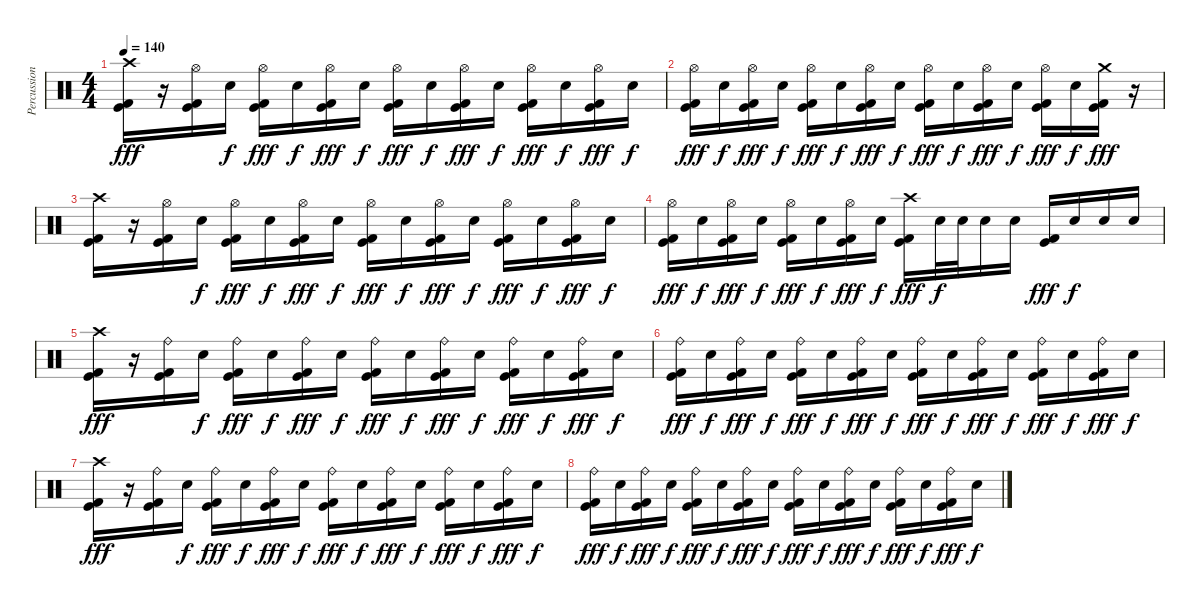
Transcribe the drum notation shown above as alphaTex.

\track ("Percussion" "Percussion") {instrument percussion}
\staff {score}
\articulation defaults
\ts (4 4)
\tempo 140
\clef neutral
\ks c
("Crash high (hit)" "Kick (hit)" "Kick (hit) 2").16{dy fff} r.16 ("Hi-Hat (open)" "Kick (hit)" "Kick (hit) 2").16 "Electric Snare (hit)".16{dy f} ("Hi-Hat (open)" "Kick (hit)" "Kick (hit) 2").16{dy fff} "Electric Snare (hit)".16{dy f} ("Hi-Hat (open)" "Kick (hit)" "Kick (hit) 2").16{dy fff} "Electric Snare (hit)".16{dy f} ("Hi-Hat (open)" "Kick (hit)" "Kick (hit) 2").16{dy fff} "Electric Snare (hit)".16{dy f} ("Hi-Hat (open)" "Kick (hit)" "Kick (hit) 2").16{dy fff} "Electric Snare (hit)".16{dy f} ("Hi-Hat (open)" "Kick (hit)" "Kick (hit) 2").16{dy fff} "Electric Snare (hit)".16{dy f} ("Hi-Hat (open)" "Kick (hit)" "Kick (hit) 2").16{dy fff} "Electric Snare (hit)".16{dy f} |
("Hi-Hat (open)" "Kick (hit)" "Kick (hit) 2").16{dy fff} "Electric Snare (hit)".16{dy f} ("Hi-Hat (open)" "Kick (hit)" "Kick (hit) 2").16{dy fff} "Electric Snare (hit)".16{dy f} ("Hi-Hat (open)" "Kick (hit)" "Kick (hit) 2").16{dy fff} "Electric Snare (hit)".16{dy f} ("Hi-Hat (open)" "Kick (hit)" "Kick (hit) 2").16{dy fff} "Electric Snare (hit)".16{dy f} ("Hi-Hat (open)" "Kick (hit)" "Kick (hit) 2").16{dy fff} "Electric Snare (hit)".16{dy f} ("Hi-Hat (open)" "Kick (hit)" "Kick (hit) 2").16{dy fff} "Electric Snare (hit)".16{dy f} ("Hi-Hat (open)" "Kick (hit)" "Kick (hit) 2").16{dy fff} "Electric Snare (hit)".16{dy f} ("Crash medium (hit)" "Kick (hit)" "Kick (hit) 2").16{dy fff} r.16 |
("Crash high (hit)" "Kick (hit)" "Kick (hit) 2").16 r.16 ("Hi-Hat (open)" "Kick (hit)" "Kick (hit) 2").16 "Electric Snare (hit)".16{dy f} ("Hi-Hat (open)" "Kick (hit)" "Kick (hit) 2").16{dy fff} "Electric Snare (hit)".16{dy f} ("Hi-Hat (open)" "Kick (hit)" "Kick (hit) 2").16{dy fff} "Electric Snare (hit)".16{dy f} ("Hi-Hat (open)" "Kick (hit)" "Kick (hit) 2").16{dy fff} "Electric Snare (hit)".16{dy f} ("Hi-Hat (open)" "Kick (hit)" "Kick (hit) 2").16{dy fff} "Electric Snare (hit)".16{dy f} ("Hi-Hat (open)" "Kick (hit)" "Kick (hit) 2").16{dy fff} "Electric Snare (hit)".16{dy f} ("Hi-Hat (open)" "Kick (hit)" "Kick (hit) 2").16{dy fff} "Electric Snare (hit)".16{dy f} |
("Hi-Hat (open)" "Kick (hit)" "Kick (hit) 2").16{dy fff} "Electric Snare (hit)".16{dy f} ("Hi-Hat (open)" "Kick (hit)" "Kick (hit) 2").16{dy fff} "Electric Snare (hit)".16{dy f} ("Hi-Hat (open)" "Kick (hit)" "Kick (hit) 2").16{dy fff} "Electric Snare (hit)".16{dy f} ("Hi-Hat (open)" "Kick (hit)" "Kick (hit) 2").16{dy fff} "Electric Snare (hit)".16{dy f} ("Crash high (hit)" "Kick (hit)" "Kick (hit) 2").16{dy fff} "Electric Snare (hit)".32{dy f} "Electric Snare (hit)".32 "Electric Snare (hit)".16 "Electric Snare (hit)".16 ("Kick (hit)" "Kick (hit) 2").16{dy fff} "Electric Snare (hit)".16{dy f} "Electric Snare (hit)".16 "Electric Snare (hit)".16 |
("Crash high (hit)" "Kick (hit)" "Kick (hit) 2").16{dy fff} r.16 ("Ride (bell)" "Kick (hit)" "Kick (hit) 2").16 "Electric Snare (hit)".16{dy f} ("Ride (bell)" "Kick (hit)" "Kick (hit) 2").16{dy fff} "Electric Snare (hit)".16{dy f} ("Ride (bell)" "Kick (hit)" "Kick (hit) 2").16{dy fff} "Electric Snare (hit)".16{dy f} ("Ride (bell)" "Kick (hit)" "Kick (hit) 2").16{dy fff} "Electric Snare (hit)".16{dy f} ("Ride (bell)" "Kick (hit)" "Kick (hit) 2").16{dy fff} "Electric Snare (hit)".16{dy f} ("Ride (bell)" "Kick (hit)" "Kick (hit) 2").16{dy fff} "Electric Snare (hit)".16{dy f} ("Ride (bell)" "Kick (hit)" "Kick (hit) 2").16{dy fff} "Electric Snare (hit)".16{dy f} |
("Ride (bell)" "Kick (hit)" "Kick (hit) 2").16{dy fff} "Electric Snare (hit)".16{dy f} ("Ride (bell)" "Kick (hit)" "Kick (hit) 2").16{dy fff} "Electric Snare (hit)".16{dy f} ("Ride (bell)" "Kick (hit)" "Kick (hit) 2").16{dy fff} "Electric Snare (hit)".16{dy f} ("Ride (bell)" "Kick (hit)" "Kick (hit) 2").16{dy fff} "Electric Snare (hit)".16{dy f} ("Ride (bell)" "Kick (hit)" "Kick (hit) 2").16{dy fff} "Electric Snare (hit)".16{dy f} ("Ride (bell)" "Kick (hit)" "Kick (hit) 2").16{dy fff} "Electric Snare (hit)".16{dy f} ("Ride (bell)" "Kick (hit)" "Kick (hit) 2").16{dy fff} "Electric Snare (hit)".16{dy f} ("Ride (bell)" "Kick (hit)" "Kick (hit) 2").16{dy fff} "Electric Snare (hit)".16{dy f} |
("Crash high (hit)" "Kick (hit)" "Kick (hit) 2").16{dy fff} r.16 ("Ride (bell)" "Kick (hit)" "Kick (hit) 2").16 "Electric Snare (hit)".16{dy f} ("Ride (bell)" "Kick (hit)" "Kick (hit) 2").16{dy fff} "Electric Snare (hit)".16{dy f} ("Ride (bell)" "Kick (hit)" "Kick (hit) 2").16{dy fff} "Electric Snare (hit)".16{dy f} ("Ride (bell)" "Kick (hit)" "Kick (hit) 2").16{dy fff} "Electric Snare (hit)".16{dy f} ("Ride (bell)" "Kick (hit)" "Kick (hit) 2").16{dy fff} "Electric Snare (hit)".16{dy f} ("Ride (bell)" "Kick (hit)" "Kick (hit) 2").16{dy fff} "Electric Snare (hit)".16{dy f} ("Ride (bell)" "Kick (hit)" "Kick (hit) 2").16{dy fff} "Electric Snare (hit)".16{dy f} |
("Ride (bell)" "Kick (hit)" "Kick (hit) 2").16{dy fff} "Electric Snare (hit)".16{dy f} ("Ride (bell)" "Kick (hit)" "Kick (hit) 2").16{dy fff} "Electric Snare (hit)".16{dy f} ("Ride (bell)" "Kick (hit)" "Kick (hit) 2").16{dy fff} "Electric Snare (hit)".16{dy f} ("Ride (bell)" "Kick (hit)" "Kick (hit) 2").16{dy fff} "Electric Snare (hit)".16{dy f} ("Ride (bell)" "Kick (hit)" "Kick (hit) 2").16{dy fff} "Electric Snare (hit)".16{dy f} ("Ride (bell)" "Kick (hit)" "Kick (hit) 2").16{dy fff} "Electric Snare (hit)".16{dy f} ("Ride (bell)" "Kick (hit)" "Kick (hit) 2").16{dy fff} "Electric Snare (hit)".16{dy f} ("Ride (bell)" "Kick (hit)" "Kick (hit) 2").16{dy fff} "Electric Snare (hit)".16{dy f}
